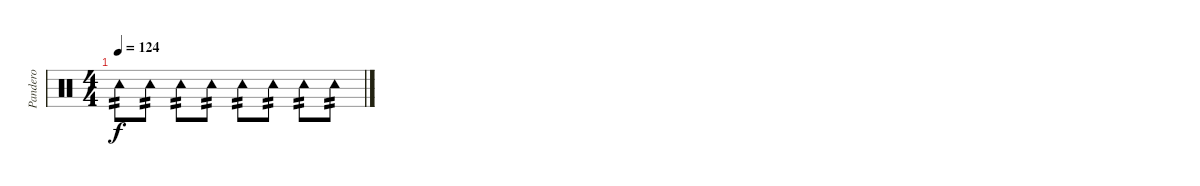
\track ("Pandero" "Pandero") {instrument percussion}
\staff {score}
\articulation defaults
\ts (4 4)
\tempo 124
\clef neutral
\ks c "Tambourine (hit)".8{tp 2 dy f} "Tambourine (hit)".8{tp 2} "Tambourine (hit)".8{tp 2} "Tambourine (hit)".8{tp 2} "Tambourine (hit)".8{tp 2} "Tambourine (hit)".8{tp 2} "Tambourine (hit)".8{tp 2} "Tambourine (hit)".8{tp 2}
